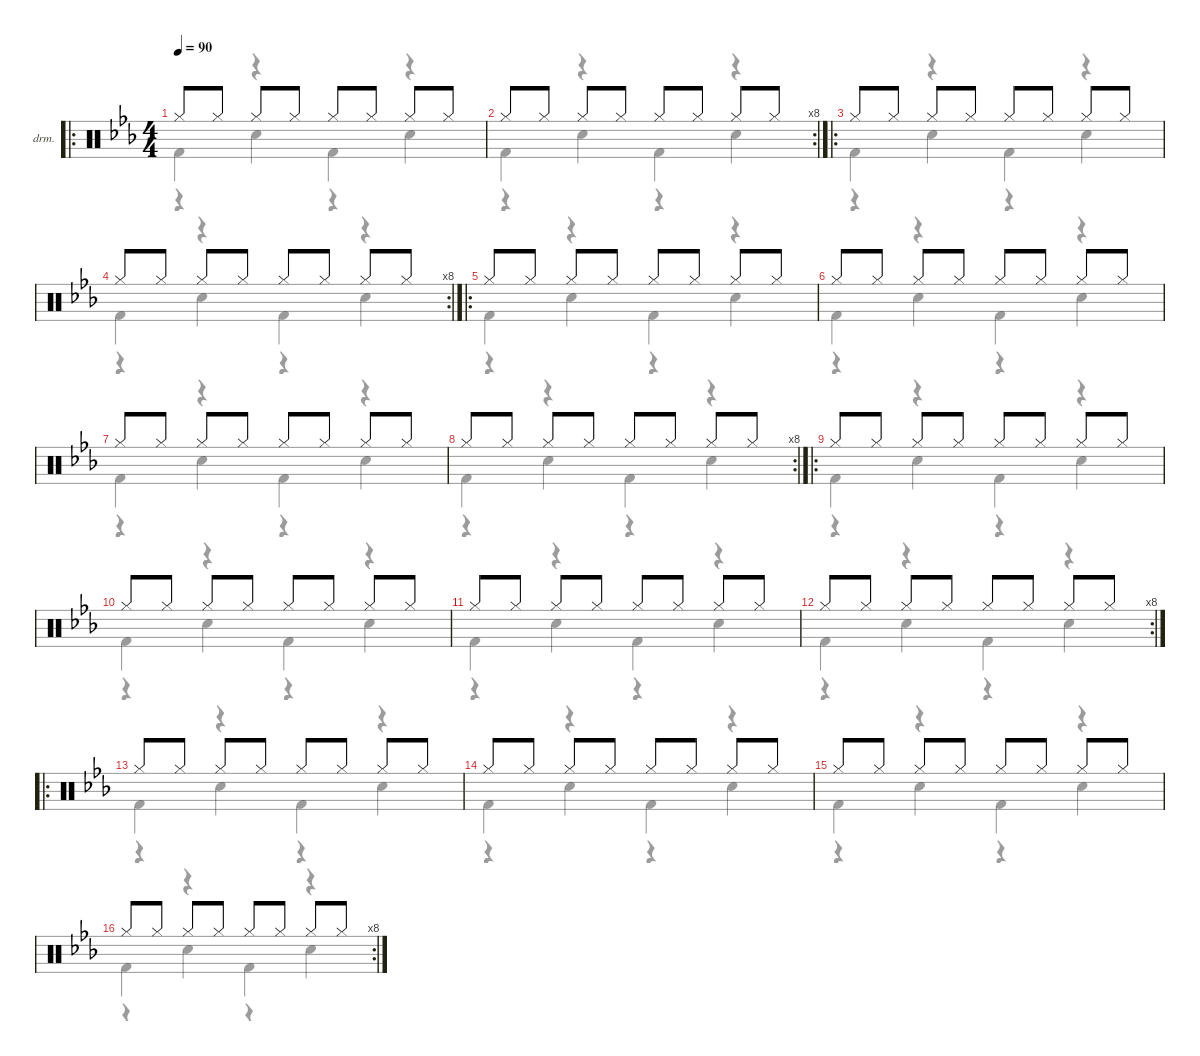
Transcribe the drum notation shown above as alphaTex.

\defaultSystemsLayout 4
\hideDynamics
\bracketExtendMode nobrackets
\firstSystemTrackNameOrientation horizontal
\otherSystemsTrackNameOrientation horizontal
\track ("Drumkit" "drm.") {defaultSystemsLayout 1 instrument percussion}
\staff {score}
\articulation defaults
\voice
\ro
\ts (4 4)
\tempo 90
\clef neutral
\ks eb "Hi-Hat (closed)"{acc forcenatural}.8{dy fff beam Up} "Hi-Hat (closed)"{acc forcenatural}.8{beam Up} "Hi-Hat (closed)"{acc forcenatural}.8{beam Up} "Hi-Hat (closed)"{acc forcenatural}.8{beam Up} "Hi-Hat (closed)"{acc forcenatural}.8{beam Up} "Hi-Hat (closed)"{acc forcenatural}.8{beam Up} "Hi-Hat (closed)"{acc forcenatural}.8{beam Up} "Hi-Hat (closed)"{acc forcenatural}.8{beam Up}
|
\rc 8 "Hi-Hat (closed)"{acc forcenatural}.8{beam Up} "Hi-Hat (closed)"{acc forcenatural}.8{beam Up} "Hi-Hat (closed)"{acc forcenatural}.8{beam Up} "Hi-Hat (closed)"{acc forcenatural}.8{beam Up} "Hi-Hat (closed)"{acc forcenatural}.8{beam Up} "Hi-Hat (closed)"{acc forcenatural}.8{beam Up} "Hi-Hat (closed)"{acc forcenatural}.8{beam Up} "Hi-Hat (closed)"{acc forcenatural}.8{beam Up}
|
\ro "Hi-Hat (closed)"{acc forcenatural}.8{beam Up} "Hi-Hat (closed)"{acc forcenatural}.8{beam Up} "Hi-Hat (closed)"{acc forcenatural}.8{beam Up} "Hi-Hat (closed)"{acc forcenatural}.8{beam Up} "Hi-Hat (closed)"{acc forcenatural}.8{beam Up} "Hi-Hat (closed)"{acc forcenatural}.8{beam Up} "Hi-Hat (closed)"{acc forcenatural}.8{beam Up} "Hi-Hat (closed)"{acc forcenatural}.8{beam Up}
|
\rc 8 "Hi-Hat (closed)"{acc forcenatural}.8{beam Up} "Hi-Hat (closed)"{acc forcenatural}.8{beam Up} "Hi-Hat (closed)"{acc forcenatural}.8{beam Up} "Hi-Hat (closed)"{acc forcenatural}.8{beam Up} "Hi-Hat (closed)"{acc forcenatural}.8{beam Up} "Hi-Hat (closed)"{acc forcenatural}.8{beam Up} "Hi-Hat (closed)"{acc forcenatural}.8{beam Up} "Hi-Hat (closed)"{acc forcenatural}.8{beam Up}
|
\ro "Hi-Hat (closed)"{acc forcenatural}.8{beam Up} "Hi-Hat (closed)"{acc forcenatural}.8{beam Up} "Hi-Hat (closed)"{acc forcenatural}.8{beam Up} "Hi-Hat (closed)"{acc forcenatural}.8{beam Up} "Hi-Hat (closed)"{acc forcenatural}.8{beam Up} "Hi-Hat (closed)"{acc forcenatural}.8{beam Up} "Hi-Hat (closed)"{acc forcenatural}.8{beam Up} "Hi-Hat (closed)"{acc forcenatural}.8{beam Up}
|
"Hi-Hat (closed)"{acc forcenatural}.8{beam Up} "Hi-Hat (closed)"{acc forcenatural}.8{beam Up} "Hi-Hat (closed)"{acc forcenatural}.8{beam Up} "Hi-Hat (closed)"{acc forcenatural}.8{beam Up} "Hi-Hat (closed)"{acc forcenatural}.8{beam Up} "Hi-Hat (closed)"{acc forcenatural}.8{beam Up} "Hi-Hat (closed)"{acc forcenatural}.8{beam Up} "Hi-Hat (closed)"{acc forcenatural}.8{beam Up} |
"Hi-Hat (closed)"{acc forcenatural}.8{beam Up} "Hi-Hat (closed)"{acc forcenatural}.8{beam Up} "Hi-Hat (closed)"{acc forcenatural}.8{beam Up} "Hi-Hat (closed)"{acc forcenatural}.8{beam Up} "Hi-Hat (closed)"{acc forcenatural}.8{beam Up} "Hi-Hat (closed)"{acc forcenatural}.8{beam Up} "Hi-Hat (closed)"{acc forcenatural}.8{beam Up} "Hi-Hat (closed)"{acc forcenatural}.8{beam Up} |
\rc 8 "Hi-Hat (closed)"{acc forcenatural}.8{beam Up} "Hi-Hat (closed)"{acc forcenatural}.8{beam Up} "Hi-Hat (closed)"{acc forcenatural}.8{beam Up} "Hi-Hat (closed)"{acc forcenatural}.8{beam Up} "Hi-Hat (closed)"{acc forcenatural}.8{beam Up} "Hi-Hat (closed)"{acc forcenatural}.8{beam Up} "Hi-Hat (closed)"{acc forcenatural}.8{beam Up} "Hi-Hat (closed)"{acc forcenatural}.8{beam Up}
|
\ro "Hi-Hat (closed)"{acc forcenatural}.8{beam Up} "Hi-Hat (closed)"{acc forcenatural}.8{beam Up} "Hi-Hat (closed)"{acc forcenatural}.8{beam Up} "Hi-Hat (closed)"{acc forcenatural}.8{beam Up} "Hi-Hat (closed)"{acc forcenatural}.8{beam Up} "Hi-Hat (closed)"{acc forcenatural}.8{beam Up} "Hi-Hat (closed)"{acc forcenatural}.8{beam Up} "Hi-Hat (closed)"{acc forcenatural}.8{beam Up}
|
"Hi-Hat (closed)"{acc forcenatural}.8{beam Up} "Hi-Hat (closed)"{acc forcenatural}.8{beam Up} "Hi-Hat (closed)"{acc forcenatural}.8{beam Up} "Hi-Hat (closed)"{acc forcenatural}.8{beam Up} "Hi-Hat (closed)"{acc forcenatural}.8{beam Up} "Hi-Hat (closed)"{acc forcenatural}.8{beam Up} "Hi-Hat (closed)"{acc forcenatural}.8{beam Up} "Hi-Hat (closed)"{acc forcenatural}.8{beam Up} |
"Hi-Hat (closed)"{acc forcenatural}.8{beam Up} "Hi-Hat (closed)"{acc forcenatural}.8{beam Up} "Hi-Hat (closed)"{acc forcenatural}.8{beam Up} "Hi-Hat (closed)"{acc forcenatural}.8{beam Up} "Hi-Hat (closed)"{acc forcenatural}.8{beam Up} "Hi-Hat (closed)"{acc forcenatural}.8{beam Up} "Hi-Hat (closed)"{acc forcenatural}.8{beam Up} "Hi-Hat (closed)"{acc forcenatural}.8{beam Up} |
\rc 8 "Hi-Hat (closed)"{acc forcenatural}.8{beam Up} "Hi-Hat (closed)"{acc forcenatural}.8{beam Up} "Hi-Hat (closed)"{acc forcenatural}.8{beam Up} "Hi-Hat (closed)"{acc forcenatural}.8{beam Up} "Hi-Hat (closed)"{acc forcenatural}.8{beam Up} "Hi-Hat (closed)"{acc forcenatural}.8{beam Up} "Hi-Hat (closed)"{acc forcenatural}.8{beam Up} "Hi-Hat (closed)"{acc forcenatural}.8{beam Up}
|
\ro "Hi-Hat (closed)"{acc forcenatural}.8{beam Up} "Hi-Hat (closed)"{acc forcenatural}.8{beam Up} "Hi-Hat (closed)"{acc forcenatural}.8{beam Up} "Hi-Hat (closed)"{acc forcenatural}.8{beam Up} "Hi-Hat (closed)"{acc forcenatural}.8{beam Up} "Hi-Hat (closed)"{acc forcenatural}.8{beam Up} "Hi-Hat (closed)"{acc forcenatural}.8{beam Up} "Hi-Hat (closed)"{acc forcenatural}.8{beam Up}
|
"Hi-Hat (closed)"{acc forcenatural}.8{beam Up} "Hi-Hat (closed)"{acc forcenatural}.8{beam Up} "Hi-Hat (closed)"{acc forcenatural}.8{beam Up} "Hi-Hat (closed)"{acc forcenatural}.8{beam Up} "Hi-Hat (closed)"{acc forcenatural}.8{beam Up} "Hi-Hat (closed)"{acc forcenatural}.8{beam Up} "Hi-Hat (closed)"{acc forcenatural}.8{beam Up} "Hi-Hat (closed)"{acc forcenatural}.8{beam Up} |
"Hi-Hat (closed)"{acc forcenatural}.8{beam Up} "Hi-Hat (closed)"{acc forcenatural}.8{beam Up} "Hi-Hat (closed)"{acc forcenatural}.8{beam Up} "Hi-Hat (closed)"{acc forcenatural}.8{beam Up} "Hi-Hat (closed)"{acc forcenatural}.8{beam Up} "Hi-Hat (closed)"{acc forcenatural}.8{beam Up} "Hi-Hat (closed)"{acc forcenatural}.8{beam Up} "Hi-Hat (closed)"{acc forcenatural}.8{beam Up} |
\rc 8 "Hi-Hat (closed)"{acc forcenatural}.8{beam Up} "Hi-Hat (closed)"{acc forcenatural}.8{beam Up} "Hi-Hat (closed)"{acc forcenatural}.8{beam Up} "Hi-Hat (closed)"{acc forcenatural}.8{beam Up} "Hi-Hat (closed)"{acc forcenatural}.8{beam Up} "Hi-Hat (closed)"{acc forcenatural}.8{beam Up} "Hi-Hat (closed)"{acc forcenatural}.8{beam Up} "Hi-Hat (closed)"{acc forcenatural}.8{beam Up}
\voice
\clef neutral
\ottava regular
\simile none
\ks eb "Kick (hit) 2"{acc forcenatural}.4{dy ppp}
r.4 "Kick (hit) 2"{acc forcenatural}.4 r.4 |
"Kick (hit) 2"{acc forcenatural}.4 r.4 "Kick (hit) 2"{acc forcenatural}.4 r.4 |
"Kick (hit) 2"{acc forcenatural}.4 r.4 "Kick (hit) 2"{acc forcenatural}.4 r.4 |
"Kick (hit) 2"{acc forcenatural}.4 r.4 "Kick (hit) 2"{acc forcenatural}.4 r.4 |
"Kick (hit) 2"{acc forcenatural}.4 r.4 "Kick (hit) 2"{acc forcenatural}.4 r.4 |
"Kick (hit) 2"{acc forcenatural}.4 r.4 "Kick (hit) 2"{acc forcenatural}.4 r.4 |
"Kick (hit) 2"{acc forcenatural}.4 r.4 "Kick (hit) 2"{acc forcenatural}.4 r.4 |
"Kick (hit) 2"{acc forcenatural}.4 r.4 "Kick (hit) 2"{acc forcenatural}.4 r.4 |
"Kick (hit) 2"{acc forcenatural}.4 r.4 "Kick (hit) 2"{acc forcenatural}.4 r.4 |
"Kick (hit) 2"{acc forcenatural}.4 r.4 "Kick (hit) 2"{acc forcenatural}.4 r.4 |
"Kick (hit) 2"{acc forcenatural}.4 r.4 "Kick (hit) 2"{acc forcenatural}.4 r.4 |
"Kick (hit) 2"{acc forcenatural}.4 r.4 "Kick (hit) 2"{acc forcenatural}.4 r.4 |
"Kick (hit) 2"{acc forcenatural}.4 r.4 "Kick (hit) 2"{acc forcenatural}.4 r.4 |
"Kick (hit) 2"{acc forcenatural}.4 r.4 "Kick (hit) 2"{acc forcenatural}.4 r.4 |
"Kick (hit) 2"{acc forcenatural}.4 r.4 "Kick (hit) 2"{acc forcenatural}.4 r.4 |
"Kick (hit) 2"{acc forcenatural}.4 r.4 "Kick (hit) 2"{acc forcenatural}.4 r.4
\voice
\clef neutral
\ottava regular
\simile none
\ks eb
r.4{dy mp} "Snare (hit) 2"{acc forcenatural}.4 r.4 "Snare (hit) 2"{acc forcenatural}.4 |
r.4 "Snare (hit) 2"{acc forcenatural}.4 r.4 "Snare (hit) 2"{acc forcenatural}.4 |
r.4 "Snare (hit) 2"{acc forcenatural}.4 r.4 "Snare (hit) 2"{acc forcenatural}.4 |
r.4 "Snare (hit) 2"{acc forcenatural}.4 r.4 "Snare (hit) 2"{acc forcenatural}.4 |
r.4 "Snare (hit) 2"{acc forcenatural}.4 r.4 "Snare (hit) 2"{acc forcenatural}.4 |
r.4 "Snare (hit) 2"{acc forcenatural}.4 r.4 "Snare (hit) 2"{acc forcenatural}.4 |
r.4 "Snare (hit) 2"{acc forcenatural}.4 r.4 "Snare (hit) 2"{acc forcenatural}.4 |
r.4 "Snare (hit) 2"{acc forcenatural}.4 r.4 "Snare (hit) 2"{acc forcenatural}.4 |
r.4 "Snare (hit) 2"{acc forcenatural}.4 r.4 "Snare (hit) 2"{acc forcenatural}.4 |
r.4 "Snare (hit) 2"{acc forcenatural}.4 r.4 "Snare (hit) 2"{acc forcenatural}.4 |
r.4 "Snare (hit) 2"{acc forcenatural}.4 r.4 "Snare (hit) 2"{acc forcenatural}.4 |
r.4 "Snare (hit) 2"{acc forcenatural}.4 r.4 "Snare (hit) 2"{acc forcenatural}.4 |
r.4 "Snare (hit) 2"{acc forcenatural}.4 r.4 "Snare (hit) 2"{acc forcenatural}.4 |
r.4 "Snare (hit) 2"{acc forcenatural}.4 r.4 "Snare (hit) 2"{acc forcenatural}.4 |
r.4 "Snare (hit) 2"{acc forcenatural}.4 r.4 "Snare (hit) 2"{acc forcenatural}.4 |
r.4 "Snare (hit) 2"{acc forcenatural}.4 r.4 "Snare (hit) 2"{acc forcenatural}.4
